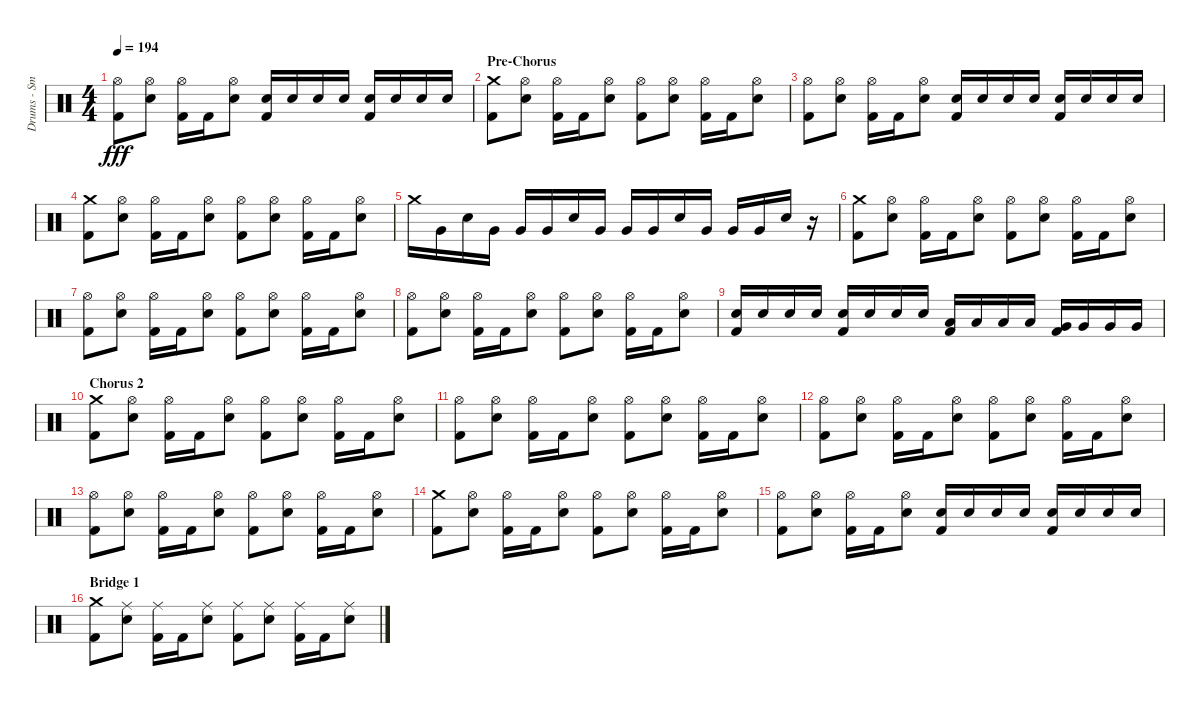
\track ("Drums - Smelly" "Drums - Sm") {instrument percussion}
\staff {score}
\articulation defaults
\ts (4 4)
\tempo 194
\clef neutral
\ks c
("Kick (hit) 2" "Hi-Hat (open)").8{dy fff} ("Electric Snare (hit)" "Hi-Hat (open)").8 ("Kick (hit) 2" "Hi-Hat (open)").16 "Kick (hit) 2".16 ("Electric Snare (hit)" "Hi-Hat (open)").8 ("Electric Snare (hit)" "Kick (hit) 2").16 "Electric Snare (hit)".16 "Electric Snare (hit)".16 "Electric Snare (hit)".16 ("Electric Snare (hit)" "Kick (hit) 2").16 "Electric Snare (hit)".16 "Electric Snare (hit)".16 "Electric Snare (hit)".16 |
\section ("" "Pre-Chorus")
("Kick (hit) 2" "Crash medium (hit)").8 ("Electric Snare (hit)" "Hi-Hat (open)").8 ("Kick (hit) 2" "Hi-Hat (open)").16 "Kick (hit) 2".16 ("Electric Snare (hit)" "Hi-Hat (open)").8 ("Kick (hit) 2" "Hi-Hat (open)").8 ("Electric Snare (hit)" "Hi-Hat (open)").8 ("Kick (hit) 2" "Hi-Hat (open)").16 "Kick (hit) 2".16 ("Electric Snare (hit)" "Hi-Hat (open)").8 |
("Kick (hit) 2" "Hi-Hat (open)").8 ("Electric Snare (hit)" "Hi-Hat (open)").8 ("Kick (hit) 2" "Hi-Hat (open)").16 "Kick (hit) 2".16 ("Electric Snare (hit)" "Hi-Hat (open)").8 ("Electric Snare (hit)" "Kick (hit) 2").16 "Electric Snare (hit)".16 "Electric Snare (hit)".16 "Electric Snare (hit)".16 ("Electric Snare (hit)" "Kick (hit) 2").16 "Electric Snare (hit)".16 "Electric Snare (hit)".16 "Electric Snare (hit)".16 |
("Kick (hit) 2" "Crash medium (hit)").8 ("Electric Snare (hit)" "Hi-Hat (open)").8 ("Kick (hit) 2" "Hi-Hat (open)").16 "Kick (hit) 2".16 ("Electric Snare (hit)" "Hi-Hat (open)").8 ("Kick (hit) 2" "Hi-Hat (open)").8 ("Electric Snare (hit)" "Hi-Hat (open)").8 ("Kick (hit) 2" "Hi-Hat (open)").16 "Kick (hit) 2".16 ("Electric Snare (hit)" "Hi-Hat (open)").8 |
"Crash medium (hit)".16 "Very Low Tom (hit)".16 "Electric Snare (hit)".16 "Very Low Tom (hit)".16 "Very Low Tom (hit)".16 "Very Low Tom (hit)".16 "Electric Snare (hit)".16 "Very Low Tom (hit)".16 "Very Low Tom (hit)".16 "Very Low Tom (hit)".16 "Electric Snare (hit)".16 "Very Low Tom (hit)".16 "Very Low Tom (hit)".16 "Very Low Tom (hit)".16 "Electric Snare (hit)".16 r.16 |
("Kick (hit) 2" "Crash medium (hit)").8 ("Electric Snare (hit)" "Hi-Hat (open)").8 ("Kick (hit) 2" "Hi-Hat (open)").16 "Kick (hit) 2".16 ("Electric Snare (hit)" "Hi-Hat (open)").8 ("Kick (hit) 2" "Hi-Hat (open)").8 ("Electric Snare (hit)" "Hi-Hat (open)").8 ("Kick (hit) 2" "Hi-Hat (open)").16 "Kick (hit) 2".16 ("Electric Snare (hit)" "Hi-Hat (open)").8 |
("Kick (hit) 2" "Hi-Hat (open)").8 ("Electric Snare (hit)" "Hi-Hat (open)").8 ("Kick (hit) 2" "Hi-Hat (open)").16 "Kick (hit) 2".16 ("Electric Snare (hit)" "Hi-Hat (open)").8 ("Kick (hit) 2" "Hi-Hat (open)").8 ("Electric Snare (hit)" "Hi-Hat (open)").8 ("Kick (hit) 2" "Hi-Hat (open)").16 "Kick (hit) 2".16 ("Electric Snare (hit)" "Hi-Hat (open)").8 |
("Kick (hit) 2" "Hi-Hat (open)").8 ("Electric Snare (hit)" "Hi-Hat (open)").8 ("Kick (hit) 2" "Hi-Hat (open)").16 "Kick (hit) 2".16 ("Electric Snare (hit)" "Hi-Hat (open)").8 ("Kick (hit) 2" "Hi-Hat (open)").8 ("Electric Snare (hit)" "Hi-Hat (open)").8 ("Kick (hit) 2" "Hi-Hat (open)").16 "Kick (hit) 2".16 ("Electric Snare (hit)" "Hi-Hat (open)").8 |
("Electric Snare (hit)" "Kick (hit) 2").16 "Electric Snare (hit)".16 "Electric Snare (hit)".16 "Electric Snare (hit)".16 ("Electric Snare (hit)" "Kick (hit) 2").16 "Electric Snare (hit)".16 "Electric Snare (hit)".16 "Electric Snare (hit)".16 ("Low Tom (hit)" "Kick (hit) 2").16 "Low Tom (hit)".16 "Low Tom (hit)".16 "Low Tom (hit)".16 ("Very Low Tom (hit)" "Kick (hit) 2").16 "Very Low Tom (hit)".16 "Very Low Tom (hit)".16 "Very Low Tom (hit)".16 |
\section ("" "Chorus 2")
("Kick (hit) 2" "Crash medium (hit)").8 ("Electric Snare (hit)" "Hi-Hat (open)").8 ("Kick (hit) 2" "Hi-Hat (open)").16 "Kick (hit) 2".16 ("Electric Snare (hit)" "Hi-Hat (open)").8 ("Kick (hit) 2" "Hi-Hat (open)").8 ("Electric Snare (hit)" "Hi-Hat (open)").8 ("Kick (hit) 2" "Hi-Hat (open)").16 "Kick (hit) 2".16 ("Electric Snare (hit)" "Hi-Hat (open)").8 |
("Kick (hit) 2" "Hi-Hat (open)").8 ("Electric Snare (hit)" "Hi-Hat (open)").8 ("Kick (hit) 2" "Hi-Hat (open)").16 "Kick (hit) 2".16 ("Electric Snare (hit)" "Hi-Hat (open)").8 ("Kick (hit) 2" "Hi-Hat (open)").8 ("Electric Snare (hit)" "Hi-Hat (open)").8 ("Kick (hit) 2" "Hi-Hat (open)").16 "Kick (hit) 2".16 ("Electric Snare (hit)" "Hi-Hat (open)").8 |
("Kick (hit) 2" "Hi-Hat (open)").8 ("Electric Snare (hit)" "Hi-Hat (open)").8 ("Kick (hit) 2" "Hi-Hat (open)").16 "Kick (hit) 2".16 ("Electric Snare (hit)" "Hi-Hat (open)").8 ("Kick (hit) 2" "Hi-Hat (open)").8 ("Electric Snare (hit)" "Hi-Hat (open)").8 ("Kick (hit) 2" "Hi-Hat (open)").16 "Kick (hit) 2".16 ("Electric Snare (hit)" "Hi-Hat (open)").8 |
("Kick (hit) 2" "Hi-Hat (open)").8 ("Electric Snare (hit)" "Hi-Hat (open)").8 ("Kick (hit) 2" "Hi-Hat (open)").16 "Kick (hit) 2".16 ("Electric Snare (hit)" "Hi-Hat (open)").8 ("Kick (hit) 2" "Hi-Hat (open)").8 ("Electric Snare (hit)" "Hi-Hat (open)").8 ("Kick (hit) 2" "Hi-Hat (open)").16 "Kick (hit) 2".16 ("Electric Snare (hit)" "Hi-Hat (open)").8 |
("Kick (hit) 2" "Crash medium (hit)").8 ("Electric Snare (hit)" "Hi-Hat (open)").8 ("Kick (hit) 2" "Hi-Hat (open)").16 "Kick (hit) 2".16 ("Electric Snare (hit)" "Hi-Hat (open)").8 ("Kick (hit) 2" "Hi-Hat (open)").8 ("Electric Snare (hit)" "Hi-Hat (open)").8 ("Kick (hit) 2" "Hi-Hat (open)").16 "Kick (hit) 2".16 ("Electric Snare (hit)" "Hi-Hat (open)").8 |
("Kick (hit) 2" "Hi-Hat (open)").8 ("Electric Snare (hit)" "Hi-Hat (open)").8 ("Kick (hit) 2" "Hi-Hat (open)").16 "Kick (hit) 2".16 ("Electric Snare (hit)" "Hi-Hat (open)").8 ("Electric Snare (hit)" "Kick (hit) 2").16 "Electric Snare (hit)".16 "Electric Snare (hit)".16 "Electric Snare (hit)".16 ("Electric Snare (hit)" "Kick (hit) 2").16 "Electric Snare (hit)".16 "Electric Snare (hit)".16 "Electric Snare (hit)".16 |
\section ("" "Bridge 1")
("Kick (hit) 2" "Crash medium (hit)").8 ("Electric Snare (hit)" "Ride (middle)").8 ("Kick (hit) 2" "Ride (middle)").16 "Kick (hit) 2".16 ("Electric Snare (hit)" "Ride (middle)").8 ("Kick (hit) 2" "Ride (middle)").8 ("Electric Snare (hit)" "Ride (middle)").8 ("Kick (hit) 2" "Ride (middle)").16 "Kick (hit) 2".16 ("Electric Snare (hit)" "Ride (middle)").8
